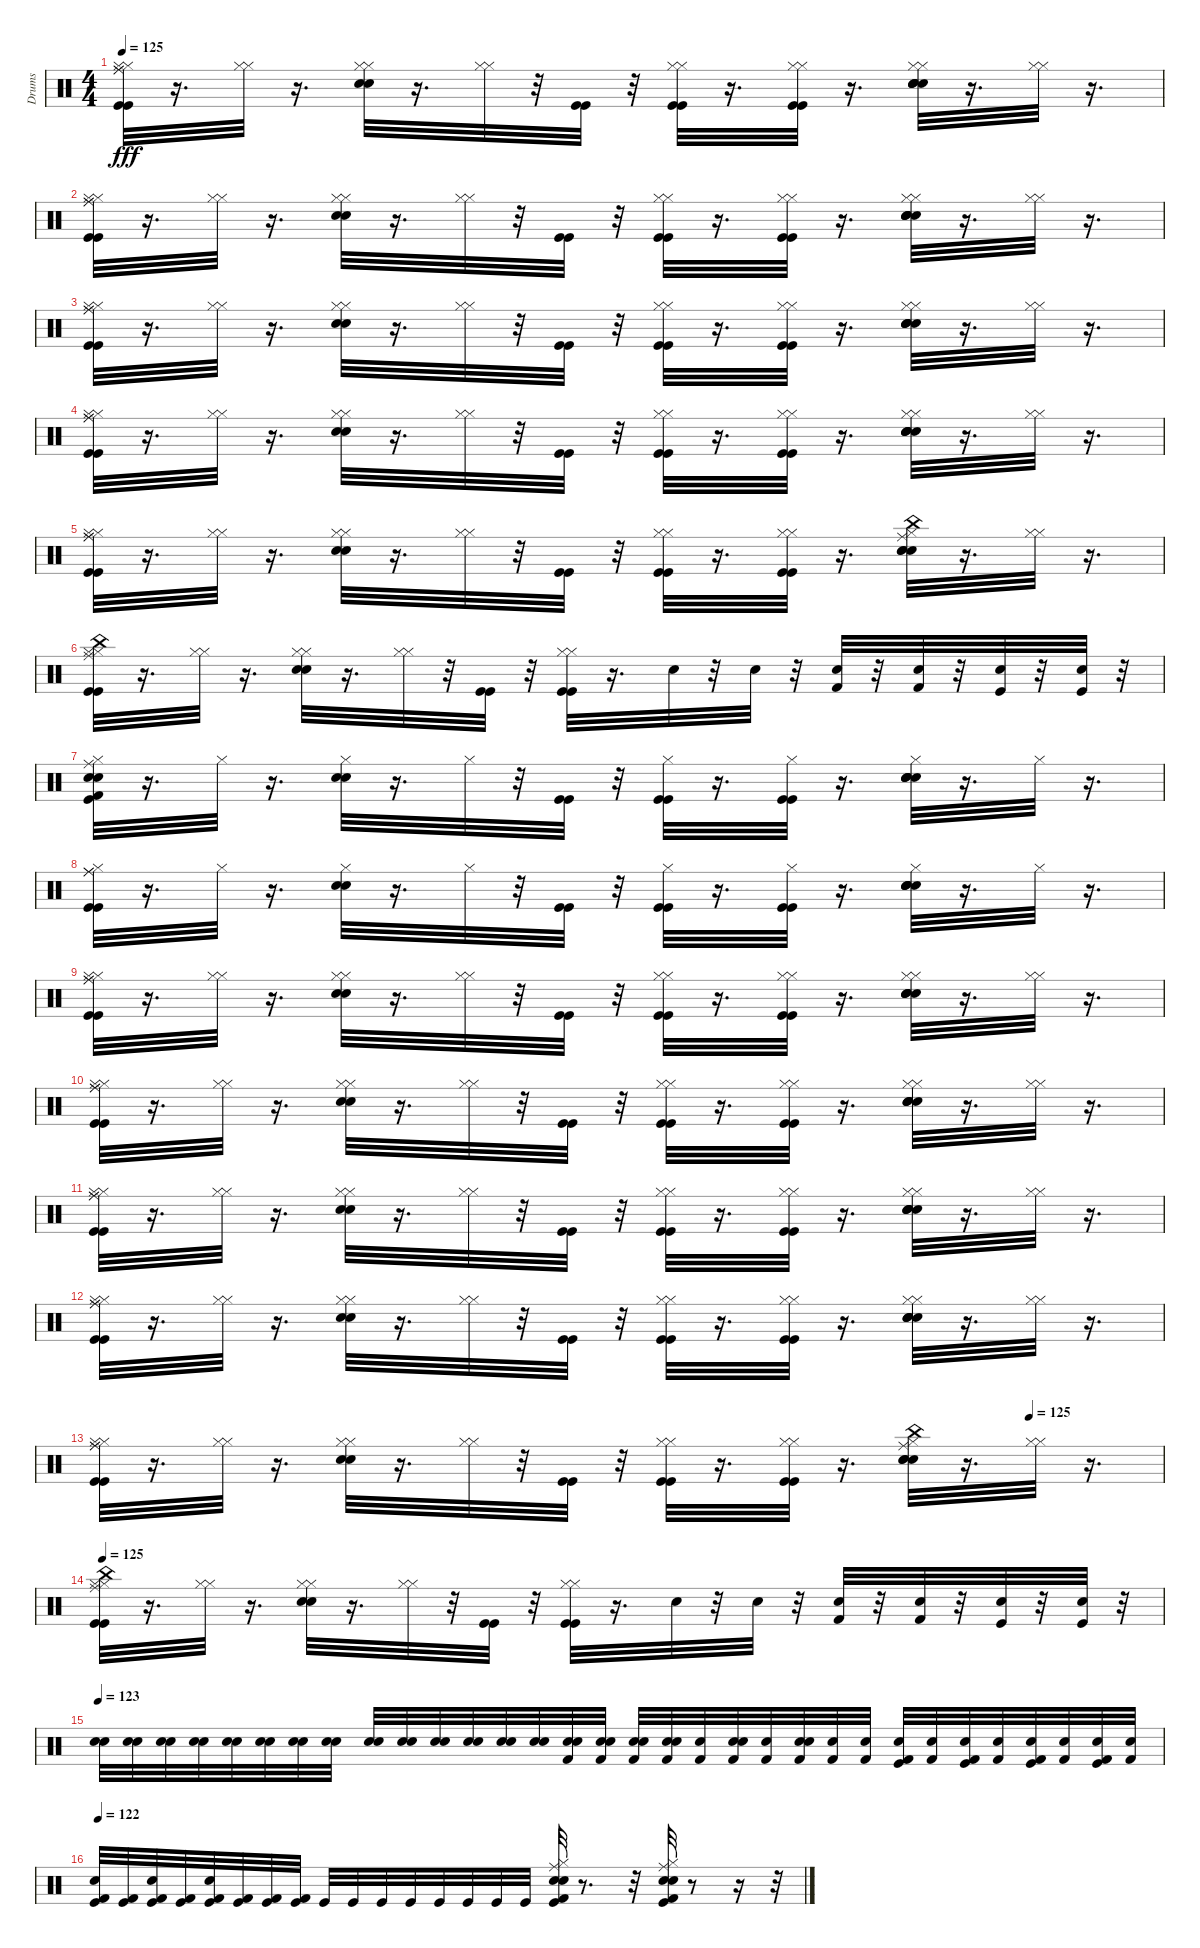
\track ("Drums" "Drums") {instrument percussion}
\staff {score}
\articulation defaults
\ts (4 4)
\tempo 125
\clef neutral
\ks c
("Kick (hit)" "Hi-Hat (closed)" "Ride (middle)" "Kick (hit)" "Hi-Hat (closed)" "Ride (middle)").32{dy fff} r.16{d} ("Hi-Hat (closed)" "Hi-Hat (closed)").32 r.16{d} ("Snare (hit) 2" "Electric Snare (hit)" "Hi-Hat (closed)" "Hi-Hat (closed)").32 r.16{d} ("Hi-Hat (closed)" "Hi-Hat (closed)").32 r.32 ("Kick (hit)" "Kick (hit)").32 r.32 ("Kick (hit)" "Hi-Hat (closed)" "Kick (hit)" "Hi-Hat (closed)").32 r.16{d} ("Kick (hit)" "Hi-Hat (closed)" "Kick (hit)" "Hi-Hat (closed)").32 r.16{d} ("Snare (hit) 2" "Electric Snare (hit)" "Hi-Hat (closed)" "Snare (hit) 2" "Electric Snare (hit)" "Hi-Hat (closed)").32 r.16{d} ("Hi-Hat (closed)" "Hi-Hat (closed)").32 r.16{d} |
("Kick (hit)" "Hi-Hat (closed)" "Ride (middle)" "Kick (hit)" "Hi-Hat (closed)" "Ride (middle)").32 r.16{d} ("Hi-Hat (closed)" "Hi-Hat (closed)").32 r.16{d} ("Snare (hit) 2" "Electric Snare (hit)" "Hi-Hat (closed)" "Hi-Hat (closed)").32 r.16{d} ("Hi-Hat (closed)" "Hi-Hat (closed)").32 r.32 ("Kick (hit)" "Kick (hit)").32 r.32 ("Kick (hit)" "Hi-Hat (closed)" "Kick (hit)" "Hi-Hat (closed)").32 r.16{d} ("Kick (hit)" "Hi-Hat (closed)" "Kick (hit)" "Hi-Hat (closed)").32 r.16{d} ("Snare (hit) 2" "Electric Snare (hit)" "Hi-Hat (closed)" "Snare (hit) 2" "Electric Snare (hit)" "Hi-Hat (closed)").32 r.16{d} ("Hi-Hat (closed)" "Hi-Hat (closed)").32 r.16{d} |
("Kick (hit)" "Hi-Hat (closed)" "Ride (middle)" "Kick (hit)" "Hi-Hat (closed)" "Ride (middle)").32 r.16{d} ("Hi-Hat (closed)" "Hi-Hat (closed)").32 r.16{d} ("Snare (hit) 2" "Electric Snare (hit)" "Hi-Hat (closed)" "Hi-Hat (closed)").32 r.16{d} ("Hi-Hat (closed)" "Hi-Hat (closed)").32 r.32 ("Kick (hit)" "Kick (hit)").32 r.32 ("Kick (hit)" "Hi-Hat (closed)" "Kick (hit)" "Hi-Hat (closed)").32 r.16{d} ("Kick (hit)" "Hi-Hat (closed)" "Kick (hit)" "Hi-Hat (closed)").32 r.16{d} ("Snare (hit) 2" "Electric Snare (hit)" "Hi-Hat (closed)" "Snare (hit) 2" "Electric Snare (hit)" "Hi-Hat (closed)").32 r.16{d} ("Hi-Hat (closed)" "Hi-Hat (closed)").32 r.16{d} |
("Kick (hit)" "Hi-Hat (closed)" "Ride (middle)" "Kick (hit)" "Hi-Hat (closed)" "Ride (middle)").32 r.16{d} ("Hi-Hat (closed)" "Hi-Hat (closed)").32 r.16{d} ("Snare (hit) 2" "Electric Snare (hit)" "Hi-Hat (closed)" "Hi-Hat (closed)").32 r.16{d} ("Hi-Hat (closed)" "Hi-Hat (closed)").32 r.32 ("Kick (hit)" "Kick (hit)").32 r.32 ("Kick (hit)" "Hi-Hat (closed)" "Kick (hit)" "Hi-Hat (closed)").32 r.16{d} ("Kick (hit)" "Hi-Hat (closed)" "Kick (hit)" "Hi-Hat (closed)").32 r.16{d} ("Snare (hit) 2" "Electric Snare (hit)" "Hi-Hat (closed)" "Snare (hit) 2" "Electric Snare (hit)" "Hi-Hat (closed)").32 r.16{d} ("Hi-Hat (closed)" "Hi-Hat (closed)").32 r.16{d} |
("Kick (hit)" "Hi-Hat (closed)" "Ride (middle)" "Kick (hit)" "Hi-Hat (closed)" "Ride (middle)").32 r.16{d} ("Hi-Hat (closed)" "Hi-Hat (closed)").32 r.16{d} ("Electric Snare (hit)" "Snare (hit) 2" "Hi-Hat (closed)" "Hi-Hat (closed)").32 r.16{d} ("Hi-Hat (closed)" "Hi-Hat (closed)").32 r.32 ("Kick (hit)" "Kick (hit)").32 r.32 ("Kick (hit)" "Hi-Hat (closed)" "Kick (hit)" "Hi-Hat (closed)").32 r.16{d} ("Kick (hit)" "Hi-Hat (closed)" "Kick (hit)" "Hi-Hat (closed)").32 r.16{d} ("Ride (middle)" "China (hit)" "Snare (hit) 2" "Electric Snare (hit)" "Hi-Hat (closed)" "Snare (hit) 2").32 r.16{d} ("Hi-Hat (closed)" "Hi-Hat (closed)").32 r.16{d} |
("China (hit)" "Kick (hit)" "Hi-Hat (closed)" "Ride (middle)" "Kick (hit)" "Hi-Hat (closed)").32 r.16{d} ("Hi-Hat (closed)" "Hi-Hat (closed)").32 r.16{d} ("Snare (hit) 2" "Electric Snare (hit)" "Hi-Hat (closed)" "Hi-Hat (closed)").32 r.16{d} ("Hi-Hat (closed)" "Hi-Hat (closed)").32 r.32 ("Kick (hit)" "Kick (hit)").32 r.32 ("Kick (hit)" "Hi-Hat (closed)" "Kick (hit)" "Hi-Hat (closed)").32 r.16{d} "Electric Snare (hit)".32 r.32 "Electric Snare (hit)".32 r.32 ("Kick (hit) 2" "Electric Snare (hit)").32 r.32 ("Kick (hit) 2" "Electric Snare (hit)").32 r.32 ("Snare (hit) 2" "Kick (hit)").32 r.32 ("Snare (hit) 2" "Kick (hit)").32 r.32 |
("Kick (hit) 2" "Snare (hit) 2" "Electric Snare (hit)" "Hi-Hat (closed)" "Kick (hit)" "Ride (middle)").32 r.16{d} "Hi-Hat (closed)".32 r.16{d} ("Snare (hit) 2" "Electric Snare (hit)" "Hi-Hat (closed)").32 r.16{d} "Hi-Hat (closed)".32 r.32 ("Kick (hit)" "Kick (hit)").32 r.32 ("Hi-Hat (closed)" "Kick (hit)" "Kick (hit)").32 r.16{d} ("Hi-Hat (closed)" "Kick (hit)" "Kick (hit)").32 r.16{d} ("Hi-Hat (closed)" "Snare (hit) 2" "Electric Snare (hit)" "Snare (hit) 2" "Electric Snare (hit)").32 r.16{d} "Hi-Hat (closed)".32 r.16{d} |
("Hi-Hat (closed)" "Kick (hit)" "Ride (middle)" "Kick (hit)" "Ride (middle)").32 r.16{d} "Hi-Hat (closed)".32 r.16{d} ("Snare (hit) 2" "Electric Snare (hit)" "Hi-Hat (closed)").32 r.16{d} "Hi-Hat (closed)".32 r.32 ("Kick (hit)" "Kick (hit)").32 r.32 ("Hi-Hat (closed)" "Kick (hit)" "Kick (hit)").32 r.16{d} ("Hi-Hat (closed)" "Kick (hit)" "Kick (hit)").32 r.16{d} ("Hi-Hat (closed)" "Snare (hit) 2" "Electric Snare (hit)" "Snare (hit) 2" "Electric Snare (hit)").32 r.16{d} "Hi-Hat (closed)".32 r.16{d} |
("Kick (hit)" "Hi-Hat (closed)" "Ride (middle)" "Kick (hit)" "Hi-Hat (closed)" "Ride (middle)").32 r.16{d} ("Hi-Hat (closed)" "Hi-Hat (closed)").32 r.16{d} ("Snare (hit) 2" "Electric Snare (hit)" "Hi-Hat (closed)" "Hi-Hat (closed)").32 r.16{d} ("Hi-Hat (closed)" "Hi-Hat (closed)").32 r.32 ("Kick (hit)" "Kick (hit)").32 r.32 ("Kick (hit)" "Hi-Hat (closed)" "Kick (hit)" "Hi-Hat (closed)").32 r.16{d} ("Kick (hit)" "Hi-Hat (closed)" "Kick (hit)" "Hi-Hat (closed)").32 r.16{d} ("Snare (hit) 2" "Electric Snare (hit)" "Hi-Hat (closed)" "Snare (hit) 2" "Electric Snare (hit)" "Hi-Hat (closed)").32 r.16{d} ("Hi-Hat (closed)" "Hi-Hat (closed)").32 r.16{d} |
("Kick (hit)" "Hi-Hat (closed)" "Ride (middle)" "Kick (hit)" "Hi-Hat (closed)" "Ride (middle)").32 r.16{d} ("Hi-Hat (closed)" "Hi-Hat (closed)").32 r.16{d} ("Snare (hit) 2" "Electric Snare (hit)" "Hi-Hat (closed)" "Hi-Hat (closed)").32 r.16{d} ("Hi-Hat (closed)" "Hi-Hat (closed)").32 r.32 ("Kick (hit)" "Kick (hit)").32 r.32 ("Kick (hit)" "Hi-Hat (closed)" "Kick (hit)" "Hi-Hat (closed)").32 r.16{d} ("Kick (hit)" "Hi-Hat (closed)" "Kick (hit)" "Hi-Hat (closed)").32 r.16{d} ("Snare (hit) 2" "Electric Snare (hit)" "Hi-Hat (closed)" "Snare (hit) 2" "Electric Snare (hit)" "Hi-Hat (closed)").32 r.16{d} ("Hi-Hat (closed)" "Hi-Hat (closed)").32 r.16{d} |
("Kick (hit)" "Hi-Hat (closed)" "Ride (middle)" "Kick (hit)" "Hi-Hat (closed)" "Ride (middle)").32 r.16{d} ("Hi-Hat (closed)" "Hi-Hat (closed)").32 r.16{d} ("Snare (hit) 2" "Electric Snare (hit)" "Hi-Hat (closed)" "Hi-Hat (closed)").32 r.16{d} ("Hi-Hat (closed)" "Hi-Hat (closed)").32 r.32 ("Kick (hit)" "Kick (hit)").32 r.32 ("Kick (hit)" "Hi-Hat (closed)" "Kick (hit)" "Hi-Hat (closed)").32 r.16{d} ("Kick (hit)" "Hi-Hat (closed)" "Kick (hit)" "Hi-Hat (closed)").32 r.16{d} ("Snare (hit) 2" "Electric Snare (hit)" "Hi-Hat (closed)" "Snare (hit) 2" "Electric Snare (hit)" "Hi-Hat (closed)").32 r.16{d} ("Hi-Hat (closed)" "Hi-Hat (closed)").32 r.16{d} |
("Kick (hit)" "Hi-Hat (closed)" "Ride (middle)" "Kick (hit)" "Hi-Hat (closed)" "Ride (middle)").32 r.16{d} ("Hi-Hat (closed)" "Hi-Hat (closed)").32 r.16{d} ("Snare (hit) 2" "Electric Snare (hit)" "Hi-Hat (closed)" "Hi-Hat (closed)").32 r.16{d} ("Hi-Hat (closed)" "Hi-Hat (closed)").32 r.32 ("Kick (hit)" "Kick (hit)").32 r.32 ("Kick (hit)" "Hi-Hat (closed)" "Kick (hit)" "Hi-Hat (closed)").32 r.16{d} ("Kick (hit)" "Hi-Hat (closed)" "Kick (hit)" "Hi-Hat (closed)").32 r.16{d} ("Snare (hit) 2" "Electric Snare (hit)" "Hi-Hat (closed)" "Snare (hit) 2" "Electric Snare (hit)" "Hi-Hat (closed)").32 r.16{d} ("Hi-Hat (closed)" "Hi-Hat (closed)").32 r.16{d} |
\tempo (125 0.875)
("Kick (hit)" "Hi-Hat (closed)" "Ride (middle)" "Kick (hit)" "Hi-Hat (closed)" "Ride (middle)").32 r.16{d} ("Hi-Hat (closed)" "Hi-Hat (closed)").32 r.16{d} ("Electric Snare (hit)" "Snare (hit) 2" "Hi-Hat (closed)" "Hi-Hat (closed)").32 r.16{d} ("Hi-Hat (closed)" "Hi-Hat (closed)").32 r.32 ("Kick (hit)" "Kick (hit)").32 r.32 ("Kick (hit)" "Hi-Hat (closed)" "Kick (hit)" "Hi-Hat (closed)").32 r.16{d} ("Kick (hit)" "Hi-Hat (closed)" "Kick (hit)" "Hi-Hat (closed)").32 r.16{d} ("Ride (middle)" "China (hit)" "Snare (hit) 2" "Electric Snare (hit)" "Hi-Hat (closed)" "Snare (hit) 2").32 r.16{d} ("Hi-Hat (closed)" "Hi-Hat (closed)").32 r.16{d} |
\tempo 125
("China (hit)" "Kick (hit)" "Hi-Hat (closed)" "Ride (middle)" "Kick (hit)" "Hi-Hat (closed)").32 r.16{d} ("Hi-Hat (closed)" "Hi-Hat (closed)").32 r.16{d} ("Snare (hit) 2" "Electric Snare (hit)" "Hi-Hat (closed)" "Hi-Hat (closed)").32 r.16{d} ("Hi-Hat (closed)" "Hi-Hat (closed)").32 r.32 ("Kick (hit)" "Kick (hit)").32 r.32 ("Kick (hit)" "Hi-Hat (closed)" "Kick (hit)" "Hi-Hat (closed)").32 r.16{d} "Electric Snare (hit)".32 r.32 "Electric Snare (hit)".32 r.32 ("Kick (hit) 2" "Electric Snare (hit)").32 r.32 ("Kick (hit) 2" "Electric Snare (hit)").32 r.32 ("Snare (hit) 2" "Kick (hit)").32 r.32 ("Snare (hit) 2" "Kick (hit)").32 r.32 |
\tempo 123
("Electric Snare (hit)" "Snare (hit) 2").32 ("Electric Snare (hit)" "Snare (hit) 2").32 ("Electric Snare (hit)" "Snare (hit) 2").32 ("Electric Snare (hit)" "Snare (hit) 2").32 ("Electric Snare (hit)" "Snare (hit) 2").32 ("Electric Snare (hit)" "Snare (hit) 2").32 ("Electric Snare (hit)" "Snare (hit) 2").32 ("Electric Snare (hit)" "Snare (hit) 2").32 ("Electric Snare (hit)" "Snare (hit) 2").32 ("Electric Snare (hit)" "Snare (hit) 2").32 ("Electric Snare (hit)" "Snare (hit) 2").32 ("Electric Snare (hit)" "Snare (hit) 2").32 ("Electric Snare (hit)" "Snare (hit) 2").32 ("Electric Snare (hit)" "Snare (hit) 2").32 ("Kick (hit) 2" "Electric Snare (hit)" "Snare (hit) 2").32 ("Kick (hit) 2" "Electric Snare (hit)" "Snare (hit) 2").32 ("Electric Snare (hit)" "Snare (hit) 2" "Kick (hit) 2").32 ("Electric Snare (hit)" "Snare (hit) 2" "Kick (hit) 2").32 ("Snare (hit) 2" "Kick (hit) 2").32 ("Electric Snare (hit)" "Snare (hit) 2" "Kick (hit) 2").32 ("Snare (hit) 2" "Kick (hit) 2").32 ("Electric Snare (hit)" "Snare (hit) 2" "Kick (hit) 2").32 ("Snare (hit) 2" "Kick (hit) 2").32 ("Snare (hit) 2" "Kick (hit) 2").32 ("Snare (hit) 2" "Kick (hit) 2" "Kick (hit)").32 ("Snare (hit) 2" "Kick (hit) 2").32 ("Snare (hit) 2" "Kick (hit) 2" "Kick (hit)").32 ("Snare (hit) 2" "Kick (hit) 2").32 ("Snare (hit) 2" "Kick (hit)" "Kick (hit) 2").32 ("Snare (hit) 2" "Kick (hit) 2").32 ("Snare (hit) 2" "Kick (hit)" "Kick (hit) 2").32 ("Snare (hit) 2" "Kick (hit) 2").32 |
\tempo 122
("Snare (hit) 2" "Kick (hit)" "Kick (hit) 2").32 ("Kick (hit)" "Kick (hit) 2").32 ("Snare (hit) 2" "Kick (hit)" "Kick (hit) 2").32 ("Kick (hit)" "Kick (hit) 2").32 ("Kick (hit) 2" "Snare (hit) 2" "Kick (hit)").32 ("Kick (hit) 2" "Kick (hit)").32 ("Kick (hit) 2" "Kick (hit)").32 ("Kick (hit) 2" "Kick (hit)").32 "Kick (hit)".32 "Kick (hit)".32 "Kick (hit)".32 "Kick (hit)".32 "Kick (hit)".32 "Kick (hit)".32 "Kick (hit)".32 "Kick (hit)".32 ("Kick (hit)" "Kick (hit) 2" "Electric Snare (hit)" "Snare (hit) 2" "Hi-Hat (closed)" "Ride (middle)").32 r.8{d} r.32 ("Kick (hit)" "Kick (hit) 2" "Snare (hit) 2" "Electric Snare (hit)" "Hi-Hat (closed)" "Ride (middle)").32 r.8 r.16 r.32
